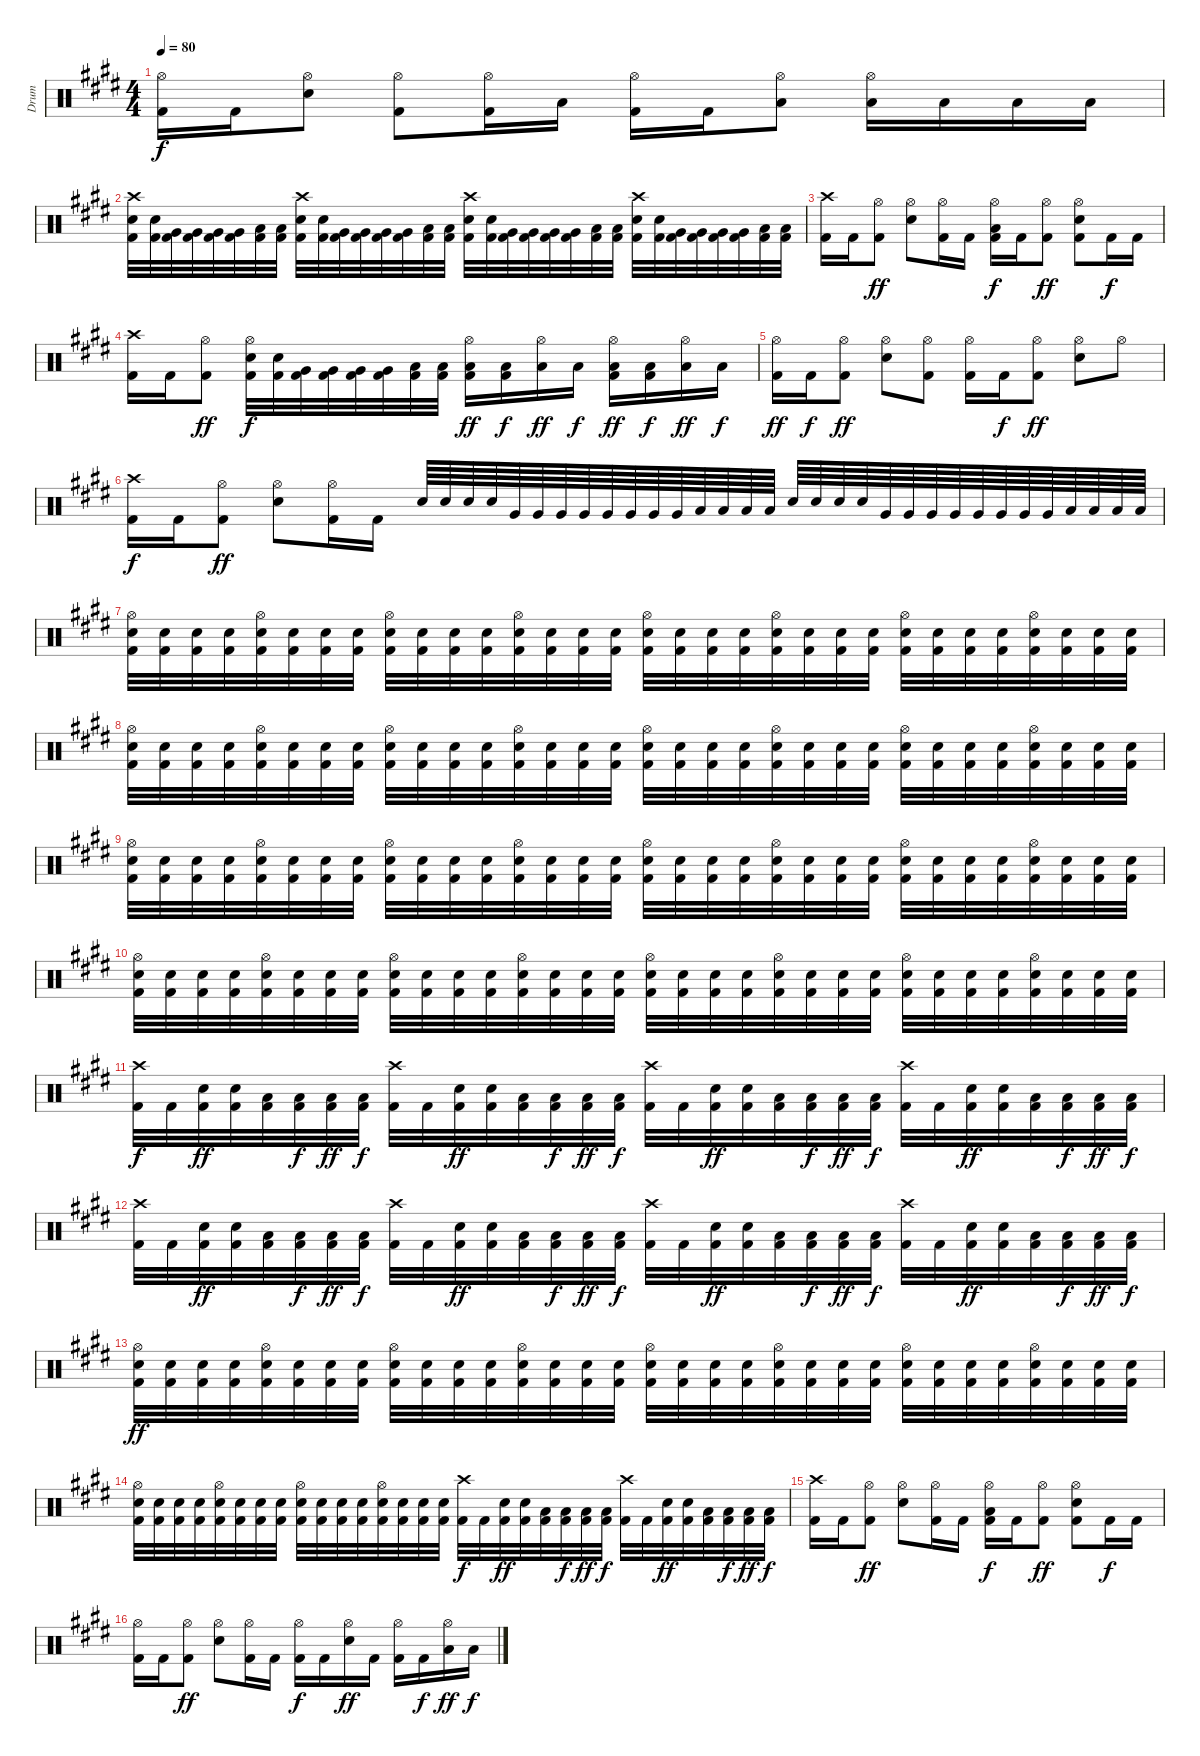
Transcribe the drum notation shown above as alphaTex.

\track ("Drum" "Drum") {instrument percussion}
\staff {score}
\articulation defaults
\ts (4 4)
\tempo 80
\clef neutral
\ks e
("Hi-Hat (open)" "Kick (hit) 2").16{dy f} "Kick (hit) 2".16 ("Hi-Hat (open)" "Snare (hit) 2").8 ("Hi-Hat (open)" "Kick (hit) 2").8 ("Hi-Hat (open)" "Kick (hit) 2").16 "Low Tom (hit)".16 ("Hi-Hat (open)" "Kick (hit) 2").16 "Kick (hit) 2".16 ("Hi-Hat (open)" "Low Tom (hit)").8 ("Hi-Hat (open)" "Low Tom (hit)").16 "Low Tom (hit)".16 "Low Tom (hit)".16 "Low Tom (hit)".16 |
("Crash high (hit)" "Snare (hit) 2" "Kick (hit) 2").32 ("Snare (hit) 2" "Kick (hit) 2").32 ("Very Low Tom (hit)" "Kick (hit) 2").32 ("Very Low Tom (hit)" "Kick (hit) 2").32 ("Very Low Tom (hit)" "Kick (hit) 2").32 ("Very Low Tom (hit)" "Kick (hit) 2").32 ("Low Tom (hit)" "Kick (hit) 2").32 ("Low Tom (hit)" "Kick (hit) 2").32 ("Crash high (hit)" "Snare (hit) 2" "Kick (hit) 2").32 ("Snare (hit) 2" "Kick (hit) 2").32 ("Very Low Tom (hit)" "Kick (hit) 2").32 ("Very Low Tom (hit)" "Kick (hit) 2").32 ("Very Low Tom (hit)" "Kick (hit) 2").32 ("Very Low Tom (hit)" "Kick (hit) 2").32 ("Low Tom (hit)" "Kick (hit) 2").32 ("Low Tom (hit)" "Kick (hit) 2").32 ("Crash high (hit)" "Snare (hit) 2" "Kick (hit) 2").32 ("Snare (hit) 2" "Kick (hit) 2").32 ("Very Low Tom (hit)" "Kick (hit) 2").32 ("Very Low Tom (hit)" "Kick (hit) 2").32 ("Very Low Tom (hit)" "Kick (hit) 2").32 ("Very Low Tom (hit)" "Kick (hit) 2").32 ("Low Tom (hit)" "Kick (hit) 2").32 ("Low Tom (hit)" "Kick (hit) 2").32 ("Crash high (hit)" "Snare (hit) 2" "Kick (hit) 2").32 ("Snare (hit) 2" "Kick (hit) 2").32 ("Very Low Tom (hit)" "Kick (hit) 2").32 ("Very Low Tom (hit)" "Kick (hit) 2").32 ("Very Low Tom (hit)" "Kick (hit) 2").32 ("Very Low Tom (hit)" "Kick (hit) 2").32 ("Low Tom (hit)" "Kick (hit) 2").32 ("Low Tom (hit)" "Kick (hit) 2").32 |
("Crash high (hit)" "Kick (hit) 2").16 "Kick (hit) 2".16 ("Hi-Hat (open)" "Kick (hit) 2").8{dy ff} ("Hi-Hat (open)" "Snare (hit) 2").8 ("Hi-Hat (open)" "Kick (hit) 2").16 "Kick (hit) 2".16 ("Hi-Hat (open)" "Low Tom (hit)" "Kick (hit) 2").16{dy f} "Kick (hit) 2".16 ("Hi-Hat (open)" "Kick (hit) 2").8{dy ff} ("Hi-Hat (open)" "Snare (hit) 2" "Kick (hit) 2").8 "Kick (hit) 2".16{dy f} "Kick (hit) 2".16 |
("Crash high (hit)" "Kick (hit) 2").16 "Kick (hit) 2".16 ("Hi-Hat (open)" "Kick (hit) 2").8{dy ff} ("Hi-Hat (open)" "Snare (hit) 2" "Kick (hit) 2").32{dy f} ("Snare (hit) 2" "Kick (hit) 2").32 ("Very Low Tom (hit)" "Kick (hit) 2").32 ("Very Low Tom (hit)" "Kick (hit) 2").32 ("Very Low Tom (hit)" "Kick (hit) 2").32 ("Very Low Tom (hit)" "Kick (hit) 2").32 ("Low Tom (hit)" "Kick (hit) 2").32 ("Low Tom (hit)" "Kick (hit) 2").32 ("Hi-Hat (open)" "Low Tom (hit)" "Kick (hit) 2").16{dy ff} ("Low Tom (hit)" "Kick (hit) 2").16{dy f} ("Hi-Hat (open)" "Low Tom (hit)").16{dy ff} "Low Tom (hit)".16{dy f} ("Hi-Hat (open)" "Low Tom (hit)" "Kick (hit) 2").16{dy ff} ("Low Tom (hit)" "Kick (hit) 2").16{dy f} ("Hi-Hat (open)" "Low Tom (hit)").16{dy ff} "Low Tom (hit)".16{dy f} |
("Hi-Hat (open)" "Kick (hit) 2").16{dy ff} "Kick (hit) 2".16{dy f} ("Hi-Hat (open)" "Kick (hit) 2").8{dy ff} ("Hi-Hat (open)" "Snare (hit) 2").8 ("Hi-Hat (open)" "Kick (hit) 2").8 ("Hi-Hat (open)" "Kick (hit) 2").16 "Kick (hit) 2".16{dy f} ("Hi-Hat (open)" "Kick (hit) 2").8{dy ff} ("Hi-Hat (open)" "Snare (hit) 2").8 "Hi-Hat (open)".8 |
("Crash high (hit)" "Kick (hit) 2").16{dy f} "Kick (hit) 2".16 ("Hi-Hat (open)" "Kick (hit) 2").8{dy ff} ("Hi-Hat (open)" "Snare (hit) 2").8 ("Hi-Hat (open)" "Kick (hit) 2").16 "Kick (hit) 2".16 "Snare (hit) 2".64 "Snare (hit) 2".64 "Snare (hit) 2".64 "Snare (hit) 2".64 "Very Low Tom (hit)".64 "Very Low Tom (hit)".64 "Very Low Tom (hit)".64 "Very Low Tom (hit)".64 "Very Low Tom (hit)".64 "Very Low Tom (hit)".64 "Very Low Tom (hit)".64 "Very Low Tom (hit)".64 "Low Tom (hit)".64 "Low Tom (hit)".64 "Low Tom (hit)".64 "Low Tom (hit)".64 "Snare (hit) 2".64 "Snare (hit) 2".64 "Snare (hit) 2".64 "Snare (hit) 2".64 "Very Low Tom (hit)".64 "Very Low Tom (hit)".64 "Very Low Tom (hit)".64 "Very Low Tom (hit)".64 "Very Low Tom (hit)".64 "Very Low Tom (hit)".64 "Very Low Tom (hit)".64 "Very Low Tom (hit)".64 "Low Tom (hit)".64 "Low Tom (hit)".64 "Low Tom (hit)".64 "Low Tom (hit)".64 |
("Hi-Hat (open)" "Snare (hit) 2" "Kick (hit) 2").32 ("Snare (hit) 2" "Kick (hit) 2").32 ("Snare (hit) 2" "Kick (hit) 2").32 ("Snare (hit) 2" "Kick (hit) 2").32 ("Hi-Hat (open)" "Snare (hit) 2" "Kick (hit) 2").32 ("Snare (hit) 2" "Kick (hit) 2").32 ("Snare (hit) 2" "Kick (hit) 2").32 ("Snare (hit) 2" "Kick (hit) 2").32 ("Hi-Hat (open)" "Snare (hit) 2" "Kick (hit) 2").32 ("Snare (hit) 2" "Kick (hit) 2").32 ("Snare (hit) 2" "Kick (hit) 2").32 ("Snare (hit) 2" "Kick (hit) 2").32 ("Hi-Hat (open)" "Snare (hit) 2" "Kick (hit) 2").32 ("Snare (hit) 2" "Kick (hit) 2").32 ("Snare (hit) 2" "Kick (hit) 2").32 ("Snare (hit) 2" "Kick (hit) 2").32 ("Hi-Hat (open)" "Snare (hit) 2" "Kick (hit) 2").32 ("Snare (hit) 2" "Kick (hit) 2").32 ("Snare (hit) 2" "Kick (hit) 2").32 ("Snare (hit) 2" "Kick (hit) 2").32 ("Hi-Hat (open)" "Snare (hit) 2" "Kick (hit) 2").32 ("Snare (hit) 2" "Kick (hit) 2").32 ("Snare (hit) 2" "Kick (hit) 2").32 ("Snare (hit) 2" "Kick (hit) 2").32 ("Hi-Hat (open)" "Snare (hit) 2" "Kick (hit) 2").32 ("Snare (hit) 2" "Kick (hit) 2").32 ("Snare (hit) 2" "Kick (hit) 2").32 ("Snare (hit) 2" "Kick (hit) 2").32 ("Hi-Hat (open)" "Snare (hit) 2" "Kick (hit) 2").32 ("Snare (hit) 2" "Kick (hit) 2").32 ("Snare (hit) 2" "Kick (hit) 2").32 ("Snare (hit) 2" "Kick (hit) 2").32 |
("Hi-Hat (open)" "Snare (hit) 2" "Kick (hit) 2").32 ("Snare (hit) 2" "Kick (hit) 2").32 ("Snare (hit) 2" "Kick (hit) 2").32 ("Snare (hit) 2" "Kick (hit) 2").32 ("Hi-Hat (open)" "Snare (hit) 2" "Kick (hit) 2").32 ("Snare (hit) 2" "Kick (hit) 2").32 ("Snare (hit) 2" "Kick (hit) 2").32 ("Snare (hit) 2" "Kick (hit) 2").32 ("Hi-Hat (open)" "Snare (hit) 2" "Kick (hit) 2").32 ("Snare (hit) 2" "Kick (hit) 2").32 ("Snare (hit) 2" "Kick (hit) 2").32 ("Snare (hit) 2" "Kick (hit) 2").32 ("Hi-Hat (open)" "Snare (hit) 2" "Kick (hit) 2").32 ("Snare (hit) 2" "Kick (hit) 2").32 ("Snare (hit) 2" "Kick (hit) 2").32 ("Snare (hit) 2" "Kick (hit) 2").32 ("Hi-Hat (open)" "Snare (hit) 2" "Kick (hit) 2").32 ("Snare (hit) 2" "Kick (hit) 2").32 ("Snare (hit) 2" "Kick (hit) 2").32 ("Snare (hit) 2" "Kick (hit) 2").32 ("Hi-Hat (open)" "Snare (hit) 2" "Kick (hit) 2").32 ("Snare (hit) 2" "Kick (hit) 2").32 ("Snare (hit) 2" "Kick (hit) 2").32 ("Snare (hit) 2" "Kick (hit) 2").32 ("Hi-Hat (open)" "Snare (hit) 2" "Kick (hit) 2").32 ("Snare (hit) 2" "Kick (hit) 2").32 ("Snare (hit) 2" "Kick (hit) 2").32 ("Snare (hit) 2" "Kick (hit) 2").32 ("Hi-Hat (open)" "Snare (hit) 2" "Kick (hit) 2").32 ("Snare (hit) 2" "Kick (hit) 2").32 ("Snare (hit) 2" "Kick (hit) 2").32 ("Snare (hit) 2" "Kick (hit) 2").32 |
("Hi-Hat (open)" "Snare (hit) 2" "Kick (hit) 2").32 ("Snare (hit) 2" "Kick (hit) 2").32 ("Snare (hit) 2" "Kick (hit) 2").32 ("Snare (hit) 2" "Kick (hit) 2").32 ("Hi-Hat (open)" "Snare (hit) 2" "Kick (hit) 2").32 ("Snare (hit) 2" "Kick (hit) 2").32 ("Snare (hit) 2" "Kick (hit) 2").32 ("Snare (hit) 2" "Kick (hit) 2").32 ("Hi-Hat (open)" "Snare (hit) 2" "Kick (hit) 2").32 ("Snare (hit) 2" "Kick (hit) 2").32 ("Snare (hit) 2" "Kick (hit) 2").32 ("Snare (hit) 2" "Kick (hit) 2").32 ("Hi-Hat (open)" "Snare (hit) 2" "Kick (hit) 2").32 ("Snare (hit) 2" "Kick (hit) 2").32 ("Snare (hit) 2" "Kick (hit) 2").32 ("Snare (hit) 2" "Kick (hit) 2").32 ("Hi-Hat (open)" "Snare (hit) 2" "Kick (hit) 2").32 ("Snare (hit) 2" "Kick (hit) 2").32 ("Snare (hit) 2" "Kick (hit) 2").32 ("Snare (hit) 2" "Kick (hit) 2").32 ("Hi-Hat (open)" "Snare (hit) 2" "Kick (hit) 2").32 ("Snare (hit) 2" "Kick (hit) 2").32 ("Snare (hit) 2" "Kick (hit) 2").32 ("Snare (hit) 2" "Kick (hit) 2").32 ("Hi-Hat (open)" "Snare (hit) 2" "Kick (hit) 2").32 ("Snare (hit) 2" "Kick (hit) 2").32 ("Snare (hit) 2" "Kick (hit) 2").32 ("Snare (hit) 2" "Kick (hit) 2").32 ("Hi-Hat (open)" "Snare (hit) 2" "Kick (hit) 2").32 ("Snare (hit) 2" "Kick (hit) 2").32 ("Snare (hit) 2" "Kick (hit) 2").32 ("Snare (hit) 2" "Kick (hit) 2").32 |
("Hi-Hat (open)" "Snare (hit) 2" "Kick (hit) 2").32 ("Snare (hit) 2" "Kick (hit) 2").32 ("Snare (hit) 2" "Kick (hit) 2").32 ("Snare (hit) 2" "Kick (hit) 2").32 ("Hi-Hat (open)" "Snare (hit) 2" "Kick (hit) 2").32 ("Snare (hit) 2" "Kick (hit) 2").32 ("Snare (hit) 2" "Kick (hit) 2").32 ("Snare (hit) 2" "Kick (hit) 2").32 ("Hi-Hat (open)" "Snare (hit) 2" "Kick (hit) 2").32 ("Snare (hit) 2" "Kick (hit) 2").32 ("Snare (hit) 2" "Kick (hit) 2").32 ("Snare (hit) 2" "Kick (hit) 2").32 ("Hi-Hat (open)" "Snare (hit) 2" "Kick (hit) 2").32 ("Snare (hit) 2" "Kick (hit) 2").32 ("Snare (hit) 2" "Kick (hit) 2").32 ("Snare (hit) 2" "Kick (hit) 2").32 ("Hi-Hat (open)" "Snare (hit) 2" "Kick (hit) 2").32 ("Snare (hit) 2" "Kick (hit) 2").32 ("Snare (hit) 2" "Kick (hit) 2").32 ("Snare (hit) 2" "Kick (hit) 2").32 ("Hi-Hat (open)" "Snare (hit) 2" "Kick (hit) 2").32 ("Snare (hit) 2" "Kick (hit) 2").32 ("Snare (hit) 2" "Kick (hit) 2").32 ("Snare (hit) 2" "Kick (hit) 2").32 ("Hi-Hat (open)" "Snare (hit) 2" "Kick (hit) 2").32 ("Snare (hit) 2" "Kick (hit) 2").32 ("Snare (hit) 2" "Kick (hit) 2").32 ("Snare (hit) 2" "Kick (hit) 2").32 ("Hi-Hat (open)" "Snare (hit) 2" "Kick (hit) 2").32 ("Snare (hit) 2" "Kick (hit) 2").32 ("Snare (hit) 2" "Kick (hit) 2").32 ("Snare (hit) 2" "Kick (hit) 2").32 |
("Crash high (hit)" "Kick (hit) 2").32{dy f} "Kick (hit) 2".32 ("Snare (hit) 2" "Kick (hit) 2").32{dy ff} ("Snare (hit) 2" "Kick (hit) 2").32 ("Low Tom (hit)" "Kick (hit) 2").32 ("Low Tom (hit)" "Kick (hit) 2").32{dy f} ("Low Tom (hit)" "Kick (hit) 2").32{dy ff} ("Low Tom (hit)" "Kick (hit) 2").32{dy f} ("Crash high (hit)" "Kick (hit) 2").32 "Kick (hit) 2".32 ("Snare (hit) 2" "Kick (hit) 2").32{dy ff} ("Snare (hit) 2" "Kick (hit) 2").32 ("Low Tom (hit)" "Kick (hit) 2").32 ("Low Tom (hit)" "Kick (hit) 2").32{dy f} ("Low Tom (hit)" "Kick (hit) 2").32{dy ff} ("Low Tom (hit)" "Kick (hit) 2").32{dy f} ("Crash high (hit)" "Kick (hit) 2").32 "Kick (hit) 2".32 ("Snare (hit) 2" "Kick (hit) 2").32{dy ff} ("Snare (hit) 2" "Kick (hit) 2").32 ("Low Tom (hit)" "Kick (hit) 2").32 ("Low Tom (hit)" "Kick (hit) 2").32{dy f} ("Low Tom (hit)" "Kick (hit) 2").32{dy ff} ("Low Tom (hit)" "Kick (hit) 2").32{dy f} ("Crash high (hit)" "Kick (hit) 2").32 "Kick (hit) 2".32 ("Snare (hit) 2" "Kick (hit) 2").32{dy ff} ("Snare (hit) 2" "Kick (hit) 2").32 ("Low Tom (hit)" "Kick (hit) 2").32 ("Low Tom (hit)" "Kick (hit) 2").32{dy f} ("Low Tom (hit)" "Kick (hit) 2").32{dy ff} ("Low Tom (hit)" "Kick (hit) 2").32{dy f} |
("Crash high (hit)" "Kick (hit) 2").32 "Kick (hit) 2".32 ("Snare (hit) 2" "Kick (hit) 2").32{dy ff} ("Snare (hit) 2" "Kick (hit) 2").32 ("Low Tom (hit)" "Kick (hit) 2").32 ("Low Tom (hit)" "Kick (hit) 2").32{dy f} ("Low Tom (hit)" "Kick (hit) 2").32{dy ff} ("Low Tom (hit)" "Kick (hit) 2").32{dy f} ("Crash high (hit)" "Kick (hit) 2").32 "Kick (hit) 2".32 ("Snare (hit) 2" "Kick (hit) 2").32{dy ff} ("Snare (hit) 2" "Kick (hit) 2").32 ("Low Tom (hit)" "Kick (hit) 2").32 ("Low Tom (hit)" "Kick (hit) 2").32{dy f} ("Low Tom (hit)" "Kick (hit) 2").32{dy ff} ("Low Tom (hit)" "Kick (hit) 2").32{dy f} ("Crash high (hit)" "Kick (hit) 2").32 "Kick (hit) 2".32 ("Snare (hit) 2" "Kick (hit) 2").32{dy ff} ("Snare (hit) 2" "Kick (hit) 2").32 ("Low Tom (hit)" "Kick (hit) 2").32 ("Low Tom (hit)" "Kick (hit) 2").32{dy f} ("Low Tom (hit)" "Kick (hit) 2").32{dy ff} ("Low Tom (hit)" "Kick (hit) 2").32{dy f} ("Crash high (hit)" "Kick (hit) 2").32 "Kick (hit) 2".32 ("Snare (hit) 2" "Kick (hit) 2").32{dy ff} ("Snare (hit) 2" "Kick (hit) 2").32 ("Low Tom (hit)" "Kick (hit) 2").32 ("Low Tom (hit)" "Kick (hit) 2").32{dy f} ("Low Tom (hit)" "Kick (hit) 2").32{dy ff} ("Low Tom (hit)" "Kick (hit) 2").32{dy f} |
("Hi-Hat (open)" "Snare (hit) 2" "Kick (hit) 2").32{dy ff} ("Snare (hit) 2" "Kick (hit) 2").32 ("Snare (hit) 2" "Kick (hit) 2").32 ("Snare (hit) 2" "Kick (hit) 2").32 ("Hi-Hat (open)" "Snare (hit) 2" "Kick (hit) 2").32 ("Snare (hit) 2" "Kick (hit) 2").32 ("Snare (hit) 2" "Kick (hit) 2").32 ("Snare (hit) 2" "Kick (hit) 2").32 ("Hi-Hat (open)" "Snare (hit) 2" "Kick (hit) 2").32 ("Snare (hit) 2" "Kick (hit) 2").32 ("Snare (hit) 2" "Kick (hit) 2").32 ("Snare (hit) 2" "Kick (hit) 2").32 ("Hi-Hat (open)" "Snare (hit) 2" "Kick (hit) 2").32 ("Snare (hit) 2" "Kick (hit) 2").32 ("Snare (hit) 2" "Kick (hit) 2").32 ("Snare (hit) 2" "Kick (hit) 2").32 ("Hi-Hat (open)" "Snare (hit) 2" "Kick (hit) 2").32 ("Snare (hit) 2" "Kick (hit) 2").32 ("Snare (hit) 2" "Kick (hit) 2").32 ("Snare (hit) 2" "Kick (hit) 2").32 ("Hi-Hat (open)" "Snare (hit) 2" "Kick (hit) 2").32 ("Snare (hit) 2" "Kick (hit) 2").32 ("Snare (hit) 2" "Kick (hit) 2").32 ("Snare (hit) 2" "Kick (hit) 2").32 ("Hi-Hat (open)" "Snare (hit) 2" "Kick (hit) 2").32 ("Snare (hit) 2" "Kick (hit) 2").32 ("Snare (hit) 2" "Kick (hit) 2").32 ("Snare (hit) 2" "Kick (hit) 2").32 ("Hi-Hat (open)" "Snare (hit) 2" "Kick (hit) 2").32 ("Snare (hit) 2" "Kick (hit) 2").32 ("Snare (hit) 2" "Kick (hit) 2").32 ("Snare (hit) 2" "Kick (hit) 2").32 |
("Hi-Hat (open)" "Snare (hit) 2" "Kick (hit) 2").32 ("Snare (hit) 2" "Kick (hit) 2").32 ("Snare (hit) 2" "Kick (hit) 2").32 ("Snare (hit) 2" "Kick (hit) 2").32 ("Hi-Hat (open)" "Snare (hit) 2" "Kick (hit) 2").32 ("Snare (hit) 2" "Kick (hit) 2").32 ("Snare (hit) 2" "Kick (hit) 2").32 ("Snare (hit) 2" "Kick (hit) 2").32 ("Hi-Hat (open)" "Snare (hit) 2" "Kick (hit) 2").32 ("Snare (hit) 2" "Kick (hit) 2").32 ("Snare (hit) 2" "Kick (hit) 2").32 ("Snare (hit) 2" "Kick (hit) 2").32 ("Hi-Hat (open)" "Snare (hit) 2" "Kick (hit) 2").32 ("Snare (hit) 2" "Kick (hit) 2").32 ("Snare (hit) 2" "Kick (hit) 2").32 ("Snare (hit) 2" "Kick (hit) 2").32 ("Crash high (hit)" "Kick (hit) 2").32{dy f} "Kick (hit) 2".32 ("Snare (hit) 2" "Kick (hit) 2").32{dy ff} ("Snare (hit) 2" "Kick (hit) 2").32 ("Low Tom (hit)" "Kick (hit) 2").32 ("Low Tom (hit)" "Kick (hit) 2").32{dy f} ("Low Tom (hit)" "Kick (hit) 2").32{dy ff} ("Low Tom (hit)" "Kick (hit) 2").32{dy f} ("Crash high (hit)" "Kick (hit) 2").32 "Kick (hit) 2".32 ("Snare (hit) 2" "Kick (hit) 2").32{dy ff} ("Snare (hit) 2" "Kick (hit) 2").32 ("Low Tom (hit)" "Kick (hit) 2").32 ("Low Tom (hit)" "Kick (hit) 2").32{dy f} ("Low Tom (hit)" "Kick (hit) 2").32{dy ff} ("Low Tom (hit)" "Kick (hit) 2").32{dy f} |
("Crash high (hit)" "Kick (hit) 2").16 "Kick (hit) 2".16 ("Hi-Hat (open)" "Kick (hit) 2").8{dy ff} ("Hi-Hat (open)" "Snare (hit) 2").8 ("Hi-Hat (open)" "Kick (hit) 2").16 "Kick (hit) 2".16 ("Hi-Hat (open)" "Low Tom (hit)" "Kick (hit) 2").16{dy f} "Kick (hit) 2".16 ("Hi-Hat (open)" "Kick (hit) 2").8{dy ff} ("Hi-Hat (open)" "Snare (hit) 2" "Kick (hit) 2").8 "Kick (hit) 2".16{dy f} "Kick (hit) 2".16 |
("Hi-Hat (open)" "Kick (hit) 2").16 "Kick (hit) 2".16 ("Hi-Hat (open)" "Kick (hit) 2").8{dy ff} ("Hi-Hat (open)" "Snare (hit) 2").8 ("Hi-Hat (open)" "Kick (hit) 2").16 "Kick (hit) 2".16 ("Hi-Hat (open)" "Kick (hit) 2").16{dy f} "Kick (hit) 2".16 ("Hi-Hat (open)" "Snare (hit) 2").16{dy ff} "Kick (hit) 2".16 ("Hi-Hat (open)" "Kick (hit) 2").16 "Kick (hit) 2".16{dy f} ("Hi-Hat (open)" "Low Tom (hit)").16{dy ff} "Low Tom (hit)".16{dy f}
